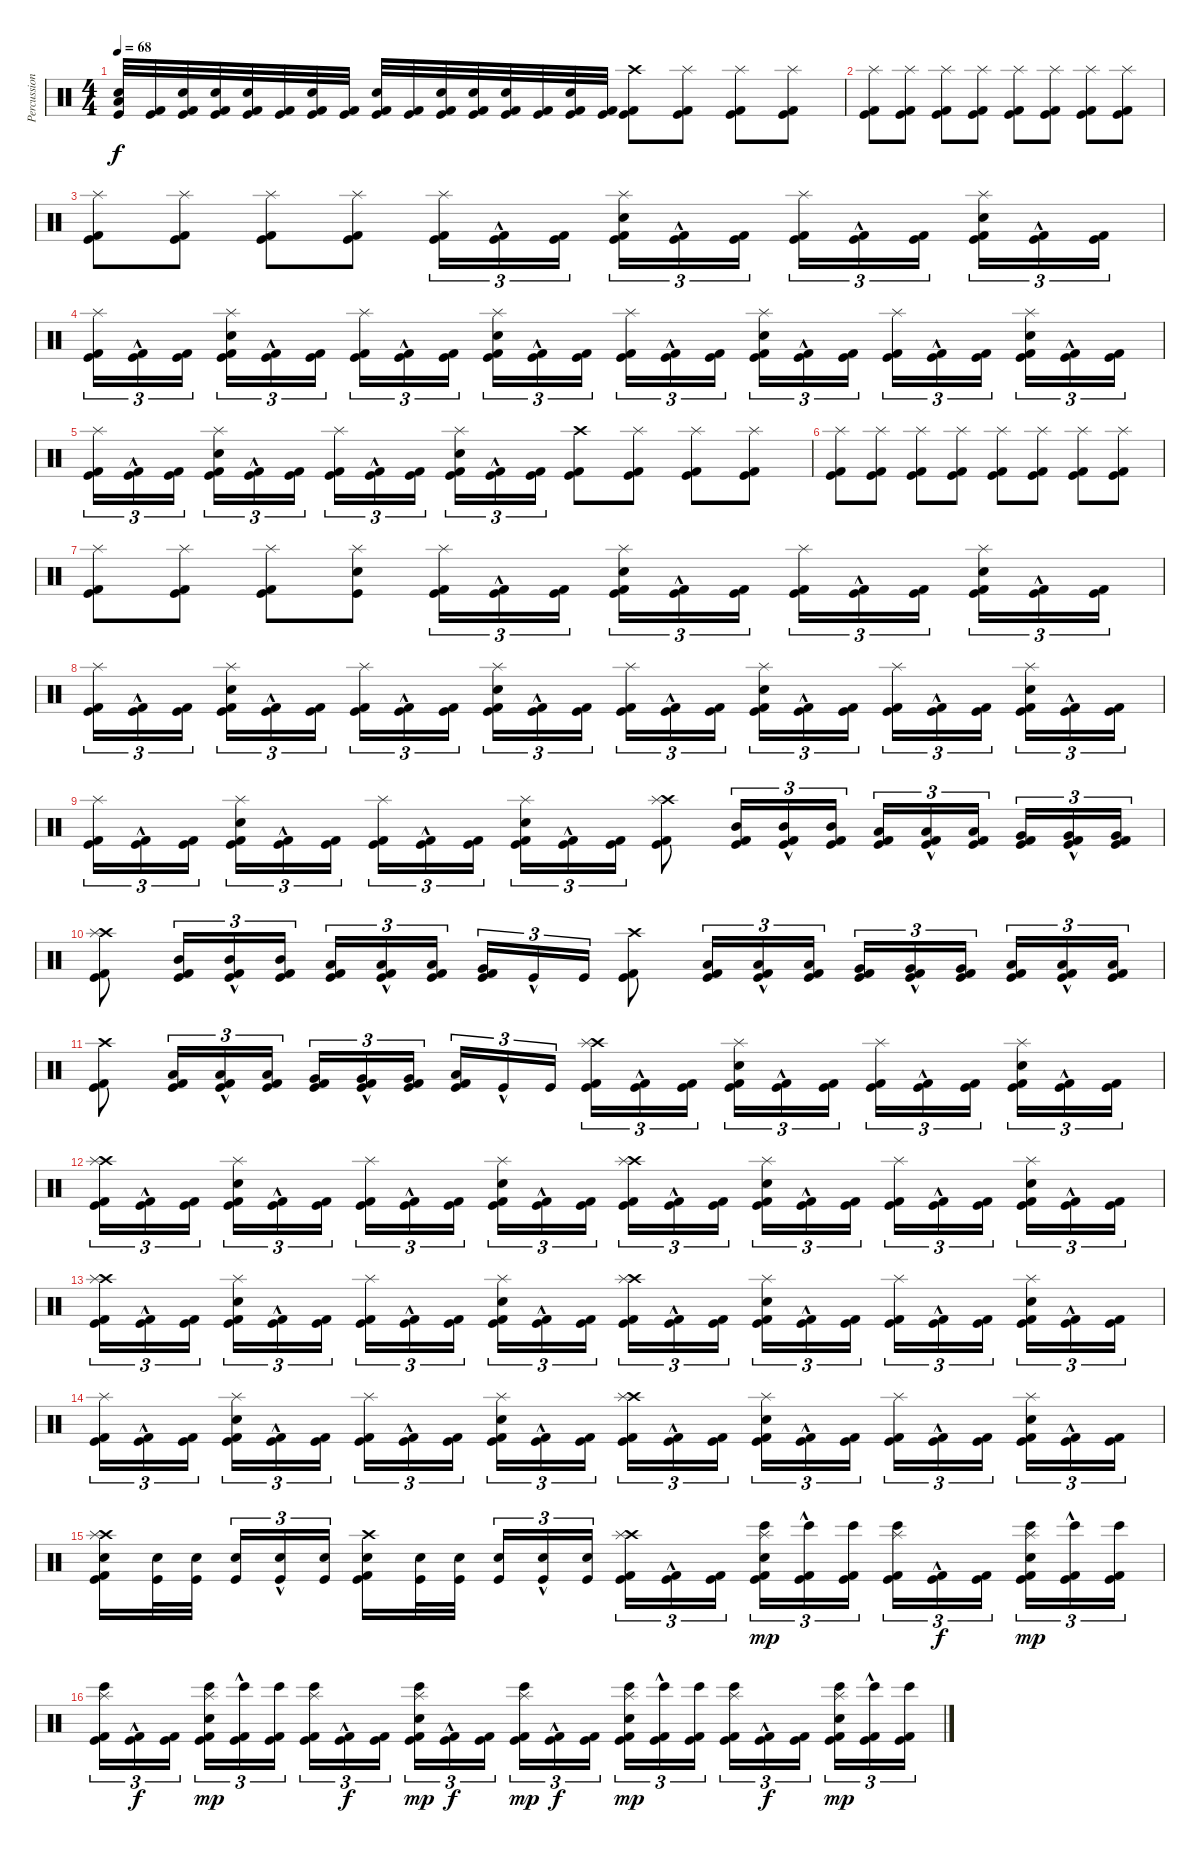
\track ("Percussion" "Percussion") {instrument percussion}
\staff {score}
\articulation defaults
\ts (4 4)
\tempo 68
\clef neutral
\ks c
("Kick (hit)" "Snare (hit) 2" "Low Tom (hit)").32{dy f} ("Kick (hit)" "Kick (hit) 2").32 ("Kick (hit)" "Kick (hit) 2" "Snare (hit) 2").32 ("Kick (hit)" "Kick (hit) 2" "Snare (hit) 2").32 ("Kick (hit)" "Kick (hit) 2" "Snare (hit) 2").32 ("Kick (hit)" "Kick (hit) 2").32 ("Kick (hit)" "Kick (hit) 2" "Snare (hit) 2").32 ("Kick (hit)" "Kick (hit) 2").32 ("Kick (hit)" "Kick (hit) 2" "Snare (hit) 2").32 ("Kick (hit)" "Kick (hit) 2").32 ("Kick (hit)" "Kick (hit) 2" "Snare (hit) 2").32 ("Kick (hit)" "Kick (hit) 2" "Snare (hit) 2").32 ("Kick (hit)" "Kick (hit) 2" "Snare (hit) 2").32 ("Kick (hit)" "Kick (hit) 2").32 ("Kick (hit)" "Kick (hit) 2" "Snare (hit) 2").32 ("Kick (hit)" "Kick (hit) 2").32 ("Kick (hit)" "Kick (hit) 2" "Crash high (hit)").8 ("Kick (hit)" "Kick (hit) 2" "Splash (hit)").8 ("Kick (hit)" "Kick (hit) 2" "Splash (hit)").8 ("Kick (hit)" "Kick (hit) 2" "Splash (hit)").8 |
("Kick (hit)" "Kick (hit) 2" "Splash (hit)").8 ("Kick (hit)" "Kick (hit) 2" "Splash (hit)").8 ("Kick (hit)" "Kick (hit) 2" "Splash (hit)").8 ("Kick (hit)" "Kick (hit) 2" "Splash (hit)").8 ("Kick (hit)" "Kick (hit) 2" "Splash (hit)").8 ("Kick (hit)" "Kick (hit) 2" "Splash (hit)").8 ("Kick (hit)" "Kick (hit) 2" "Splash (hit)").8 ("Kick (hit)" "Kick (hit) 2" "Splash (hit)").8 |
\section ("" "")
("Kick (hit)" "Kick (hit) 2" "Splash (hit)").8 ("Kick (hit)" "Kick (hit) 2" "Splash (hit)").8 ("Kick (hit)" "Kick (hit) 2" "Splash (hit)").8 ("Kick (hit)" "Kick (hit) 2" "Splash (hit)").8 ("Kick (hit)" "Kick (hit) 2" "Splash (hit)").16{tu (3 2)} ("Kick (hit)"{hac} "Kick (hit) 2"{hac}).16{tu (3 2)} ("Kick (hit)" "Kick (hit) 2").16{tu (3 2)} ("Kick (hit)" "Kick (hit) 2" "Snare (hit) 2" "Splash (hit)").16{tu (3 2)} ("Kick (hit)"{hac} "Kick (hit) 2"{hac}).16{tu (3 2)} ("Kick (hit)" "Kick (hit) 2").16{tu (3 2)} ("Kick (hit)" "Kick (hit) 2" "Splash (hit)").16{tu (3 2)} ("Kick (hit)"{hac} "Kick (hit) 2"{hac}).16{tu (3 2)} ("Kick (hit)" "Kick (hit) 2").16{tu (3 2)} ("Kick (hit)" "Kick (hit) 2" "Snare (hit) 2" "Splash (hit)").16{tu (3 2)} ("Kick (hit)"{hac} "Kick (hit) 2"{hac}).16{tu (3 2)} ("Kick (hit)" "Kick (hit) 2").16{tu (3 2)} |
("Kick (hit)" "Kick (hit) 2" "Splash (hit)").16{tu (3 2)} ("Kick (hit)"{hac} "Kick (hit) 2"{hac}).16{tu (3 2)} ("Kick (hit)" "Kick (hit) 2").16{tu (3 2)} ("Kick (hit)" "Kick (hit) 2" "Snare (hit) 2" "Splash (hit)").16{tu (3 2)} ("Kick (hit)"{hac} "Kick (hit) 2"{hac}).16{tu (3 2)} ("Kick (hit)" "Kick (hit) 2").16{tu (3 2)} ("Kick (hit)" "Kick (hit) 2" "Splash (hit)").16{tu (3 2)} ("Kick (hit)"{hac} "Kick (hit) 2"{hac}).16{tu (3 2)} ("Kick (hit)" "Kick (hit) 2").16{tu (3 2)} ("Kick (hit)" "Kick (hit) 2" "Snare (hit) 2" "Splash (hit)").16{tu (3 2)} ("Kick (hit)"{hac} "Kick (hit) 2"{hac}).16{tu (3 2)} ("Kick (hit)" "Kick (hit) 2").16{tu (3 2)} ("Kick (hit)" "Kick (hit) 2" "Splash (hit)").16{tu (3 2)} ("Kick (hit)"{hac} "Kick (hit) 2"{hac}).16{tu (3 2)} ("Kick (hit)" "Kick (hit) 2").16{tu (3 2)} ("Kick (hit)" "Kick (hit) 2" "Snare (hit) 2" "Splash (hit)").16{tu (3 2)} ("Kick (hit)"{hac} "Kick (hit) 2"{hac}).16{tu (3 2)} ("Kick (hit)" "Kick (hit) 2").16{tu (3 2)} ("Kick (hit)" "Kick (hit) 2" "Splash (hit)").16{tu (3 2)} ("Kick (hit)"{hac} "Kick (hit) 2"{hac}).16{tu (3 2)} ("Kick (hit)" "Kick (hit) 2").16{tu (3 2)} ("Kick (hit)" "Kick (hit) 2" "Snare (hit) 2" "Splash (hit)").16{tu (3 2)} ("Kick (hit)"{hac} "Kick (hit) 2"{hac}).16{tu (3 2)} ("Kick (hit)" "Kick (hit) 2").16{tu (3 2)} |
("Kick (hit)" "Kick (hit) 2" "Splash (hit)").16{tu (3 2)} ("Kick (hit)"{hac} "Kick (hit) 2"{hac}).16{tu (3 2)} ("Kick (hit)" "Kick (hit) 2").16{tu (3 2)} ("Kick (hit)" "Kick (hit) 2" "Snare (hit) 2" "Splash (hit)").16{tu (3 2)} ("Kick (hit)"{hac} "Kick (hit) 2"{hac}).16{tu (3 2)} ("Kick (hit)" "Kick (hit) 2").16{tu (3 2)} ("Kick (hit)" "Kick (hit) 2" "Splash (hit)").16{tu (3 2)} ("Kick (hit)"{hac} "Kick (hit) 2"{hac}).16{tu (3 2)} ("Kick (hit)" "Kick (hit) 2").16{tu (3 2)} ("Kick (hit)" "Kick (hit) 2" "Snare (hit) 2" "Splash (hit)").16{tu (3 2)} ("Kick (hit)"{hac} "Kick (hit) 2"{hac}).16{tu (3 2)} ("Kick (hit)" "Kick (hit) 2").16{tu (3 2)} ("Kick (hit)" "Kick (hit) 2" "Crash high (hit)").8 ("Kick (hit)" "Kick (hit) 2" "Splash (hit)").8 ("Kick (hit)" "Kick (hit) 2" "Splash (hit)").8 ("Kick (hit)" "Kick (hit) 2" "Splash (hit)").8 |
("Kick (hit)" "Kick (hit) 2" "Splash (hit)").8 ("Kick (hit)" "Kick (hit) 2" "Splash (hit)").8 ("Kick (hit)" "Kick (hit) 2" "Splash (hit)").8 ("Kick (hit)" "Kick (hit) 2" "Splash (hit)").8 ("Kick (hit)" "Kick (hit) 2" "Splash (hit)").8 ("Kick (hit)" "Kick (hit) 2" "Splash (hit)").8 ("Kick (hit)" "Kick (hit) 2" "Splash (hit)").8 ("Kick (hit)" "Kick (hit) 2" "Splash (hit)").8 |
("Kick (hit)" "Kick (hit) 2" "Splash (hit)").8 ("Kick (hit)" "Kick (hit) 2" "Splash (hit)").8 ("Kick (hit)" "Kick (hit) 2" "Splash (hit)").8 ("Kick (hit)" "Snare (hit) 2" "Splash (hit)").8 ("Kick (hit)" "Kick (hit) 2" "Splash (hit)").16{tu (3 2)} ("Kick (hit)"{hac} "Kick (hit) 2"{hac}).16{tu (3 2)} ("Kick (hit)" "Kick (hit) 2").16{tu (3 2)} ("Kick (hit)" "Kick (hit) 2" "Snare (hit) 2" "Splash (hit)").16{tu (3 2)} ("Kick (hit)"{hac} "Kick (hit) 2"{hac}).16{tu (3 2)} ("Kick (hit)" "Kick (hit) 2").16{tu (3 2)} ("Kick (hit)" "Kick (hit) 2" "Splash (hit)").16{tu (3 2)} ("Kick (hit)"{hac} "Kick (hit) 2"{hac}).16{tu (3 2)} ("Kick (hit)" "Kick (hit) 2").16{tu (3 2)} ("Kick (hit)" "Kick (hit) 2" "Snare (hit) 2" "Splash (hit)").16{tu (3 2)} ("Kick (hit)"{hac} "Kick (hit) 2"{hac}).16{tu (3 2)} ("Kick (hit)" "Kick (hit) 2").16{tu (3 2)} |
("Kick (hit)" "Kick (hit) 2" "Splash (hit)").16{tu (3 2)} ("Kick (hit)"{hac} "Kick (hit) 2"{hac}).16{tu (3 2)} ("Kick (hit)" "Kick (hit) 2").16{tu (3 2)} ("Kick (hit)" "Kick (hit) 2" "Snare (hit) 2" "Splash (hit)").16{tu (3 2)} ("Kick (hit)"{hac} "Kick (hit) 2"{hac}).16{tu (3 2)} ("Kick (hit)" "Kick (hit) 2").16{tu (3 2)} ("Kick (hit)" "Kick (hit) 2" "Splash (hit)").16{tu (3 2)} ("Kick (hit)"{hac} "Kick (hit) 2"{hac}).16{tu (3 2)} ("Kick (hit)" "Kick (hit) 2").16{tu (3 2)} ("Kick (hit)" "Kick (hit) 2" "Snare (hit) 2" "Splash (hit)").16{tu (3 2)} ("Kick (hit)"{hac} "Kick (hit) 2"{hac}).16{tu (3 2)} ("Kick (hit)" "Kick (hit) 2").16{tu (3 2)} ("Kick (hit)" "Kick (hit) 2" "Splash (hit)").16{tu (3 2)} ("Kick (hit)"{hac} "Kick (hit) 2"{hac}).16{tu (3 2)} ("Kick (hit)" "Kick (hit) 2").16{tu (3 2)} ("Kick (hit)" "Kick (hit) 2" "Snare (hit) 2" "Splash (hit)").16{tu (3 2)} ("Kick (hit)"{hac} "Kick (hit) 2"{hac}).16{tu (3 2)} ("Kick (hit)" "Kick (hit) 2").16{tu (3 2)} ("Kick (hit)" "Kick (hit) 2" "Splash (hit)").16{tu (3 2)} ("Kick (hit)"{hac} "Kick (hit) 2"{hac}).16{tu (3 2)} ("Kick (hit)" "Kick (hit) 2").16{tu (3 2)} ("Kick (hit)" "Kick (hit) 2" "Snare (hit) 2" "Splash (hit)").16{tu (3 2)} ("Kick (hit)"{hac} "Kick (hit) 2"{hac}).16{tu (3 2)} ("Kick (hit)" "Kick (hit) 2").16{tu (3 2)} |
("Kick (hit)" "Kick (hit) 2" "Splash (hit)").16{tu (3 2)} ("Kick (hit)"{hac} "Kick (hit) 2"{hac}).16{tu (3 2)} ("Kick (hit)" "Kick (hit) 2").16{tu (3 2)} ("Kick (hit)" "Kick (hit) 2" "Snare (hit) 2" "Splash (hit)").16{tu (3 2)} ("Kick (hit)"{hac} "Kick (hit) 2"{hac}).16{tu (3 2)} ("Kick (hit)" "Kick (hit) 2").16{tu (3 2)} ("Kick (hit)" "Kick (hit) 2" "Splash (hit)").16{tu (3 2)} ("Kick (hit)"{hac} "Kick (hit) 2"{hac}).16{tu (3 2)} ("Kick (hit)" "Kick (hit) 2").16{tu (3 2)} ("Kick (hit)" "Kick (hit) 2" "Snare (hit) 2" "Splash (hit)").16{tu (3 2)} ("Kick (hit)"{hac} "Kick (hit) 2"{hac}).16{tu (3 2)} ("Kick (hit)" "Kick (hit) 2").16{tu (3 2)} ("Kick (hit)" "Kick (hit) 2" "Crash high (hit)" "Splash (hit)").8 ("Kick (hit)" "Kick (hit) 2" "Mid Tom (hit)").16{tu (3 2)} ("Kick (hit)"{hac} "Kick (hit) 2"{hac} "Mid Tom (hit)"{hac}).16{tu (3 2)} ("Kick (hit)" "Kick (hit) 2" "Mid Tom (hit)").16{tu (3 2)} ("Kick (hit)" "Kick (hit) 2" "Low Tom (hit)").16{tu (3 2)} ("Kick (hit)"{hac} "Kick (hit) 2"{hac} "Low Tom (hit)"{hac}).16{tu (3 2)} ("Kick (hit)" "Kick (hit) 2" "Low Tom (hit)").16{tu (3 2)} ("Kick (hit)" "Kick (hit) 2" "Very Low Tom (hit)").16{tu (3 2)} ("Kick (hit)"{hac} "Kick (hit) 2"{hac} "Very Low Tom (hit)"{hac}).16{tu (3 2)} ("Kick (hit)" "Kick (hit) 2" "Very Low Tom (hit)").16{tu (3 2)} |
("Kick (hit)" "Kick (hit) 2" "Crash high (hit)" "Splash (hit)").8 ("Kick (hit)" "Kick (hit) 2" "Mid Tom (hit)").16{tu (3 2)} ("Kick (hit)"{hac} "Kick (hit) 2"{hac} "Mid Tom (hit)"{hac}).16{tu (3 2)} ("Kick (hit)" "Kick (hit) 2" "Mid Tom (hit)").16{tu (3 2)} ("Kick (hit)" "Kick (hit) 2" "Low Tom (hit)").16{tu (3 2)} ("Kick (hit)"{hac} "Kick (hit) 2"{hac} "Low Tom (hit)"{hac}).16{tu (3 2)} ("Kick (hit)" "Kick (hit) 2" "Low Tom (hit)").16{tu (3 2)} ("Kick (hit)" "Kick (hit) 2" "Very Low Tom (hit)").16{tu (3 2)} "Kick (hit)"{hac}.16{tu (3 2)} "Kick (hit)".16{tu (3 2)} ("Kick (hit)" "Kick (hit) 2" "Crash high (hit)").8 ("Kick (hit)" "Kick (hit) 2" "Low Tom (hit)").16{tu (3 2)} ("Kick (hit)"{hac} "Kick (hit) 2"{hac} "Low Tom (hit)"{hac}).16{tu (3 2)} ("Kick (hit)" "Kick (hit) 2" "Low Tom (hit)").16{tu (3 2)} ("Kick (hit)" "Kick (hit) 2" "Very Low Tom (hit)").16{tu (3 2)} ("Kick (hit)"{hac} "Kick (hit) 2"{hac} "Very Low Tom (hit)"{hac}).16{tu (3 2)} ("Kick (hit)" "Kick (hit) 2" "Very Low Tom (hit)").16{tu (3 2)} ("Kick (hit)" "Kick (hit) 2" "Low Floor Tom (hit)").16{tu (3 2)} ("Kick (hit)"{hac} "Kick (hit) 2"{hac} "Low Floor Tom (hit)"{hac}).16{tu (3 2)} ("Kick (hit)" "Kick (hit) 2" "Low Floor Tom (hit)").16{tu (3 2)} |
("Kick (hit)" "Kick (hit) 2" "Crash high (hit)").8 ("Kick (hit)" "Kick (hit) 2" "Low Tom (hit)").16{tu (3 2)} ("Kick (hit)"{hac} "Kick (hit) 2"{hac} "Low Tom (hit)"{hac}).16{tu (3 2)} ("Kick (hit)" "Kick (hit) 2" "Low Tom (hit)").16{tu (3 2)} ("Kick (hit)" "Kick (hit) 2" "Very Low Tom (hit)").16{tu (3 2)} ("Kick (hit)"{hac} "Kick (hit) 2"{hac} "Very Low Tom (hit)"{hac}).16{tu (3 2)} ("Kick (hit)" "Kick (hit) 2" "Very Low Tom (hit)").16{tu (3 2)} ("Kick (hit)" "Kick (hit) 2" "Low Floor Tom (hit)").16{tu (3 2)} "Kick (hit)"{hac}.16{tu (3 2)} "Kick (hit)".16{tu (3 2)} ("Kick (hit)" "Kick (hit) 2" "Crash high (hit)" "Splash (hit)").16{tu (3 2)} ("Kick (hit)"{hac} "Kick (hit) 2"{hac}).16{tu (3 2)} ("Kick (hit)" "Kick (hit) 2").16{tu (3 2)} ("Kick (hit)" "Kick (hit) 2" "Snare (hit) 2" "Splash (hit)").16{tu (3 2)} ("Kick (hit)"{hac} "Kick (hit) 2"{hac}).16{tu (3 2)} ("Kick (hit)" "Kick (hit) 2").16{tu (3 2)} ("Kick (hit)" "Kick (hit) 2" "Splash (hit)").16{tu (3 2)} ("Kick (hit)"{hac} "Kick (hit) 2"{hac}).16{tu (3 2)} ("Kick (hit)" "Kick (hit) 2").16{tu (3 2)} ("Kick (hit)" "Kick (hit) 2" "Snare (hit) 2" "Splash (hit)").16{tu (3 2)} ("Kick (hit)"{hac} "Kick (hit) 2"{hac}).16{tu (3 2)} ("Kick (hit)" "Kick (hit) 2").16{tu (3 2)} |
("Kick (hit)" "Kick (hit) 2" "Crash high (hit)" "Splash (hit)").16{tu (3 2)} ("Kick (hit)"{hac} "Kick (hit) 2"{hac}).16{tu (3 2)} ("Kick (hit)" "Kick (hit) 2").16{tu (3 2)} ("Kick (hit)" "Kick (hit) 2" "Snare (hit) 2" "Splash (hit)").16{tu (3 2)} ("Kick (hit)"{hac} "Kick (hit) 2"{hac}).16{tu (3 2)} ("Kick (hit)" "Kick (hit) 2").16{tu (3 2)} ("Kick (hit)" "Kick (hit) 2" "Splash (hit)").16{tu (3 2)} ("Kick (hit)"{hac} "Kick (hit) 2"{hac}).16{tu (3 2)} ("Kick (hit)" "Kick (hit) 2").16{tu (3 2)} ("Kick (hit)" "Kick (hit) 2" "Snare (hit) 2" "Splash (hit)").16{tu (3 2)} ("Kick (hit)"{hac} "Kick (hit) 2"{hac}).16{tu (3 2)} ("Kick (hit)" "Kick (hit) 2").16{tu (3 2)} ("Kick (hit)" "Kick (hit) 2" "Crash high (hit)" "Splash (hit)").16{tu (3 2)} ("Kick (hit)"{hac} "Kick (hit) 2"{hac}).16{tu (3 2)} ("Kick (hit)" "Kick (hit) 2").16{tu (3 2)} ("Kick (hit)" "Kick (hit) 2" "Snare (hit) 2" "Splash (hit)").16{tu (3 2)} ("Kick (hit)"{hac} "Kick (hit) 2"{hac}).16{tu (3 2)} ("Kick (hit)" "Kick (hit) 2").16{tu (3 2)} ("Kick (hit)" "Kick (hit) 2" "Splash (hit)").16{tu (3 2)} ("Kick (hit)"{hac} "Kick (hit) 2"{hac}).16{tu (3 2)} ("Kick (hit)" "Kick (hit) 2").16{tu (3 2)} ("Kick (hit)" "Kick (hit) 2" "Snare (hit) 2" "Splash (hit)").16{tu (3 2)} ("Kick (hit)"{hac} "Kick (hit) 2"{hac}).16{tu (3 2)} ("Kick (hit)" "Kick (hit) 2").16{tu (3 2)} |
("Kick (hit)" "Kick (hit) 2" "Crash high (hit)" "Splash (hit)").16{tu (3 2)} ("Kick (hit)"{hac} "Kick (hit) 2"{hac}).16{tu (3 2)} ("Kick (hit)" "Kick (hit) 2").16{tu (3 2)} ("Kick (hit)" "Kick (hit) 2" "Snare (hit) 2" "Splash (hit)").16{tu (3 2)} ("Kick (hit)"{hac} "Kick (hit) 2"{hac}).16{tu (3 2)} ("Kick (hit)" "Kick (hit) 2").16{tu (3 2)} ("Kick (hit)" "Kick (hit) 2" "Splash (hit)").16{tu (3 2)} ("Kick (hit)"{hac} "Kick (hit) 2"{hac}).16{tu (3 2)} ("Kick (hit)" "Kick (hit) 2").16{tu (3 2)} ("Kick (hit)" "Kick (hit) 2" "Snare (hit) 2" "Splash (hit)").16{tu (3 2)} ("Kick (hit)"{hac} "Kick (hit) 2"{hac}).16{tu (3 2)} ("Kick (hit)" "Kick (hit) 2").16{tu (3 2)} ("Kick (hit)" "Kick (hit) 2" "Crash high (hit)" "Splash (hit)").16{tu (3 2)} ("Kick (hit)"{hac} "Kick (hit) 2"{hac}).16{tu (3 2)} ("Kick (hit)" "Kick (hit) 2").16{tu (3 2)} ("Kick (hit)" "Kick (hit) 2" "Snare (hit) 2" "Splash (hit)").16{tu (3 2)} ("Kick (hit)"{hac} "Kick (hit) 2"{hac}).16{tu (3 2)} ("Kick (hit)" "Kick (hit) 2").16{tu (3 2)} ("Kick (hit)" "Kick (hit) 2" "Splash (hit)").16{tu (3 2)} ("Kick (hit)"{hac} "Kick (hit) 2"{hac}).16{tu (3 2)} ("Kick (hit)" "Kick (hit) 2").16{tu (3 2)} ("Kick (hit)" "Kick (hit) 2" "Snare (hit) 2" "Splash (hit)").16{tu (3 2)} ("Kick (hit)"{hac} "Kick (hit) 2"{hac}).16{tu (3 2)} ("Kick (hit)" "Kick (hit) 2").16{tu (3 2)} |
("Kick (hit)" "Kick (hit) 2" "Splash (hit)").16{tu (3 2)} ("Kick (hit)"{hac} "Kick (hit) 2"{hac}).16{tu (3 2)} ("Kick (hit)" "Kick (hit) 2").16{tu (3 2)} ("Kick (hit)" "Kick (hit) 2" "Snare (hit) 2" "Splash (hit)").16{tu (3 2)} ("Kick (hit)"{hac} "Kick (hit) 2"{hac}).16{tu (3 2)} ("Kick (hit)" "Kick (hit) 2").16{tu (3 2)} ("Kick (hit)" "Kick (hit) 2" "Splash (hit)").16{tu (3 2)} ("Kick (hit)"{hac} "Kick (hit) 2"{hac}).16{tu (3 2)} ("Kick (hit)" "Kick (hit) 2").16{tu (3 2)} ("Kick (hit)" "Kick (hit) 2" "Snare (hit) 2" "Splash (hit)").16{tu (3 2)} ("Kick (hit)"{hac} "Kick (hit) 2"{hac}).16{tu (3 2)} ("Kick (hit)" "Kick (hit) 2").16{tu (3 2)} ("Kick (hit)" "Kick (hit) 2" "Crash high (hit)" "Splash (hit)").16{tu (3 2)} ("Kick (hit)"{hac} "Kick (hit) 2"{hac}).16{tu (3 2)} ("Kick (hit)" "Kick (hit) 2").16{tu (3 2)} ("Kick (hit)" "Kick (hit) 2" "Snare (hit) 2" "Splash (hit)").16{tu (3 2)} ("Kick (hit)"{hac} "Kick (hit) 2"{hac}).16{tu (3 2)} ("Kick (hit)" "Kick (hit) 2").16{tu (3 2)} ("Kick (hit)" "Kick (hit) 2" "Splash (hit)").16{tu (3 2)} ("Kick (hit)"{hac} "Kick (hit) 2"{hac}).16{tu (3 2)} ("Kick (hit)" "Kick (hit) 2").16{tu (3 2)} ("Kick (hit)" "Kick (hit) 2" "Snare (hit) 2" "Splash (hit)").16{tu (3 2)} ("Kick (hit)"{hac} "Kick (hit) 2"{hac}).16{tu (3 2)} ("Kick (hit)" "Kick (hit) 2").16{tu (3 2)} |
("Kick (hit)" "Kick (hit) 2" "Snare (hit) 2" "Crash high (hit)" "Splash (hit)").16 ("Kick (hit)" "Snare (hit) 2").32 ("Kick (hit)" "Snare (hit) 2").32 ("Kick (hit)" "Snare (hit) 2").16{tu (3 2)} ("Kick (hit)"{hac} "Snare (hit) 2"{hac}).16{tu (3 2)} ("Kick (hit)" "Snare (hit) 2").16{tu (3 2)} ("Kick (hit)" "Kick (hit) 2" "Snare (hit) 2" "Crash high (hit)").16 ("Kick (hit)" "Snare (hit) 2").32 ("Kick (hit)" "Snare (hit) 2").32 ("Kick (hit)" "Snare (hit) 2").16{tu (3 2)} ("Kick (hit)"{hac} "Snare (hit) 2"{hac}).16{tu (3 2)} ("Kick (hit)" "Snare (hit) 2").16{tu (3 2)} ("Kick (hit)" "Kick (hit) 2" "Crash high (hit)" "Splash (hit)").16{tu (3 2)} ("Kick (hit)"{hac} "Kick (hit) 2"{hac}).16{tu (3 2)} ("Kick (hit)" "Kick (hit) 2").16{tu (3 2)} ("Bongo High (hit)" "Kick (hit)" "Kick (hit) 2" "Snare (hit) 2" "Splash (hit)").16{tu (3 2) dy mp} ("Bongo High (hit)"{hac} "Kick (hit)"{hac} "Kick (hit) 2"{hac}).16{tu (3 2)} ("Bongo High (hit)" "Kick (hit)" "Kick (hit) 2").16{tu (3 2)} ("Bongo High (hit)" "Kick (hit)" "Kick (hit) 2" "Splash (hit)").16{tu (3 2)} ("Kick (hit)"{hac} "Kick (hit) 2"{hac}).16{tu (3 2) dy f} ("Kick (hit)" "Kick (hit) 2").16{tu (3 2)} ("Bongo High (hit)" "Kick (hit)" "Kick (hit) 2" "Snare (hit) 2" "Splash (hit)").16{tu (3 2) dy mp} ("Bongo High (hit)"{hac} "Kick (hit)"{hac} "Kick (hit) 2"{hac}).16{tu (3 2)} ("Bongo High (hit)" "Kick (hit)" "Kick (hit) 2").16{tu (3 2)} |
("Bongo High (hit)" "Kick (hit)" "Kick (hit) 2" "Splash (hit)").16{tu (3 2)} ("Kick (hit)"{hac} "Kick (hit) 2"{hac}).16{tu (3 2) dy f} ("Kick (hit)" "Kick (hit) 2").16{tu (3 2)} ("Bongo High (hit)" "Kick (hit)" "Kick (hit) 2" "Snare (hit) 2" "Splash (hit)").16{tu (3 2) dy mp} ("Bongo High (hit)"{hac} "Kick (hit)"{hac} "Kick (hit) 2"{hac}).16{tu (3 2)} ("Bongo High (hit)" "Kick (hit)" "Kick (hit) 2").16{tu (3 2)} ("Bongo High (hit)" "Kick (hit)" "Kick (hit) 2" "Splash (hit)").16{tu (3 2)} ("Kick (hit)"{hac} "Kick (hit) 2"{hac}).16{tu (3 2) dy f} ("Kick (hit)" "Kick (hit) 2").16{tu (3 2)} ("Bongo High (hit)" "Kick (hit)" "Kick (hit) 2" "Snare (hit) 2" "Splash (hit)").16{tu (3 2) dy mp} ("Kick (hit)"{hac} "Kick (hit) 2"{hac}).16{tu (3 2) dy f} ("Kick (hit)" "Kick (hit) 2").16{tu (3 2)} ("Bongo High (hit)" "Kick (hit)" "Kick (hit) 2" "Splash (hit)").16{tu (3 2) dy mp} ("Kick (hit)"{hac} "Kick (hit) 2"{hac}).16{tu (3 2) dy f} ("Kick (hit)" "Kick (hit) 2").16{tu (3 2)} ("Bongo High (hit)" "Kick (hit)" "Kick (hit) 2" "Snare (hit) 2" "Splash (hit)").16{tu (3 2) dy mp} ("Bongo High (hit)"{hac} "Kick (hit)"{hac} "Kick (hit) 2"{hac}).16{tu (3 2)} ("Bongo High (hit)" "Kick (hit)" "Kick (hit) 2").16{tu (3 2)} ("Bongo High (hit)" "Kick (hit)" "Kick (hit) 2" "Splash (hit)").16{tu (3 2)} ("Kick (hit)"{hac} "Kick (hit) 2"{hac}).16{tu (3 2) dy f} ("Kick (hit)" "Kick (hit) 2").16{tu (3 2)} ("Bongo High (hit)" "Kick (hit)" "Kick (hit) 2" "Snare (hit) 2" "Splash (hit)").16{tu (3 2) dy mp} ("Bongo High (hit)"{hac} "Kick (hit)"{hac} "Kick (hit) 2"{hac}).16{tu (3 2)} ("Bongo High (hit)" "Kick (hit)" "Kick (hit) 2").16{tu (3 2)}
